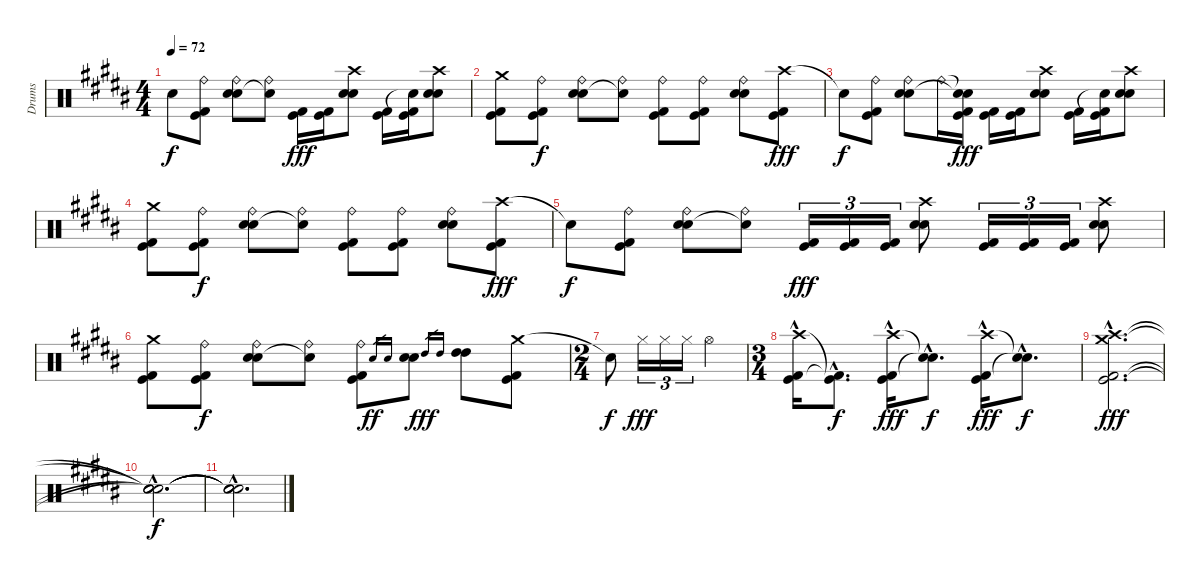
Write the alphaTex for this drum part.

\track ("Drums" "Drums") {instrument percussion}
\staff {score}
\articulation defaults
\ts (4 4)
\tempo 72
\clef neutral
\ks b "Snare (hit)"{t}.8{dy f}
("Ride (bell)" "Kick (hit)" "Kick (hit) 2").8 ("Ride (bell)" "Electric Snare (hit)" "Snare (hit) 2").8 ("Ride (bell)" "Snare (hit)"{t}).8 ("Kick (hit)" "Kick (hit) 2").16{dy fff} ("Kick (hit)" "Kick (hit) 2").16 ("Electric Snare (hit)" "Snare (hit) 2" "Crash high (hit)").8 ("Kick (hit)" "Kick (hit) 2").16 ("Snare (hit)"{t} "Kick (hit)" "Kick (hit) 2").16 ("Electric Snare (hit)" "Snare (hit) 2" "Crash high (hit)").8 |
("Crash medium (hit)" "Kick (hit)" "Kick (hit) 2").8 ("Ride (bell)" "Kick (hit)" "Kick (hit) 2").8{dy f} ("Ride (bell)" "Electric Snare (hit)" "Snare (hit) 2").8 ("Ride (bell)" "Snare (hit)"{t}).8 ("Ride (bell)" "Kick (hit)" "Kick (hit) 2").8 ("Ride (bell)" "Kick (hit)" "Kick (hit) 2").8 ("Ride (bell)" "Electric Snare (hit)" "Snare (hit) 2").8 ("Crash high (hit)" "Kick (hit)" "Kick (hit) 2").8{dy fff} |
"Snare (hit)"{t}.8{dy f} ("Ride (bell)" "Kick (hit)" "Kick (hit) 2").8 ("Ride (bell)" "Electric Snare (hit)" "Snare (hit) 2").8 "Ride (bell)".16 ("Snare (hit)"{t} "Snare (hit)"{t} "Kick (hit)" "Kick (hit) 2").16{dy fff} ("Kick (hit)" "Kick (hit) 2").16 ("Kick (hit)" "Kick (hit) 2").16 ("Electric Snare (hit)" "Snare (hit) 2" "Crash high (hit)").8 ("Kick (hit)" "Kick (hit) 2").16 ("Snare (hit)"{t} "Kick (hit)" "Kick (hit) 2").16 ("Electric Snare (hit)" "Snare (hit) 2" "Crash high (hit)").8 |
("Crash medium (hit)" "Kick (hit)" "Kick (hit) 2").8 ("Ride (bell)" "Kick (hit)" "Kick (hit) 2").8{dy f} ("Ride (bell)" "Electric Snare (hit)" "Snare (hit) 2").8 ("Ride (bell)" "Snare (hit)"{t}).8 ("Ride (bell)" "Kick (hit)" "Kick (hit) 2").8 ("Ride (bell)" "Kick (hit)" "Kick (hit) 2").8 ("Ride (bell)" "Electric Snare (hit)" "Snare (hit) 2").8 ("Crash high (hit)" "Kick (hit)" "Kick (hit) 2").8{dy fff} |
"Snare (hit)"{t}.8{dy f} ("Ride (bell)" "Kick (hit)" "Kick (hit) 2").8 ("Ride (bell)" "Electric Snare (hit)" "Snare (hit) 2").8 ("Ride (bell)" "Snare (hit)"{t}).8 ("Kick (hit)" "Kick (hit) 2").16{tu (3 2) dy fff} ("Kick (hit)" "Kick (hit) 2").16{tu (3 2)} ("Kick (hit)" "Kick (hit) 2").16{tu (3 2)} ("Electric Snare (hit)" "Snare (hit) 2" "Crash high (hit)").8 ("Kick (hit)" "Kick (hit) 2").16{tu (3 2)} ("Kick (hit)" "Kick (hit) 2").16{tu (3 2)} ("Kick (hit)" "Kick (hit) 2").16{tu (3 2)} ("Electric Snare (hit)" "Snare (hit) 2" "Crash high (hit)").8 |
("Crash medium (hit)" "Kick (hit)" "Kick (hit) 2").8 ("Ride (bell)" "Kick (hit)" "Kick (hit) 2").8{dy f} ("Ride (bell)" "Electric Snare (hit)" "Snare (hit) 2").8 ("Ride (bell)" "Snare (hit)"{t}).8 ("Ride (bell)" "Kick (hit)" "Kick (hit) 2").8 "Electric Snare (hit)".16{gr dy ff} "Snare (hit) 2".16{gr} ("Electric Snare (hit)" "Snare (hit) 2").8 "High Tom (hit)".16{gr dy fff} "High Tom (hit)".16{gr} ("High Tom (hit)" "High Tom (hit)").8 ("Crash medium (hit)" "Kick (hit)" "Kick (hit) 2").8 |
\ts (2 4)
"Snare (hit)"{t}.8{dy f} "Hi-Hat (closed)".16{tu (3 2) dy fff} "Hi-Hat (closed)".16{tu (3 2)} "Hi-Hat (closed)".16{tu (3 2)} "Hi-Hat (open)".4 |
\ts (3 4)
("Crash high (hit)"{hac} "Kick (hit)" "Kick (hit) 2").16 ("Kick (hit)"{hac t} "Kick (hit) 2"{hac t}).8{d dy f} ("Crash high (hit)"{hac} "Kick (hit)" "Kick (hit) 2").16{dy fff} ("Snare (hit)"{hac t} "Snare (hit)"{hac t}).8{d dy f} ("Crash high (hit)"{hac} "Kick (hit)" "Kick (hit) 2").16{dy fff} ("Snare (hit)"{hac t} "Snare (hit)"{hac t}).8{d dy f} |
("Crash medium (hit)"{hac} "Crash high (hit)"{hac} "Kick (hit)"{hac} "Kick (hit) 2"{hac}).2{d dy fff} |
("Snare (hit)"{hac t} "Snare (hit)"{hac t} "Snare (hit)"{hac t} "Snare (hit)"{hac t}).2{d dy f} |
("Snare (hit)"{hac t} "Snare (hit)"{hac t} "Snare (hit)"{hac t} "Snare (hit)"{hac t}).2{d}
